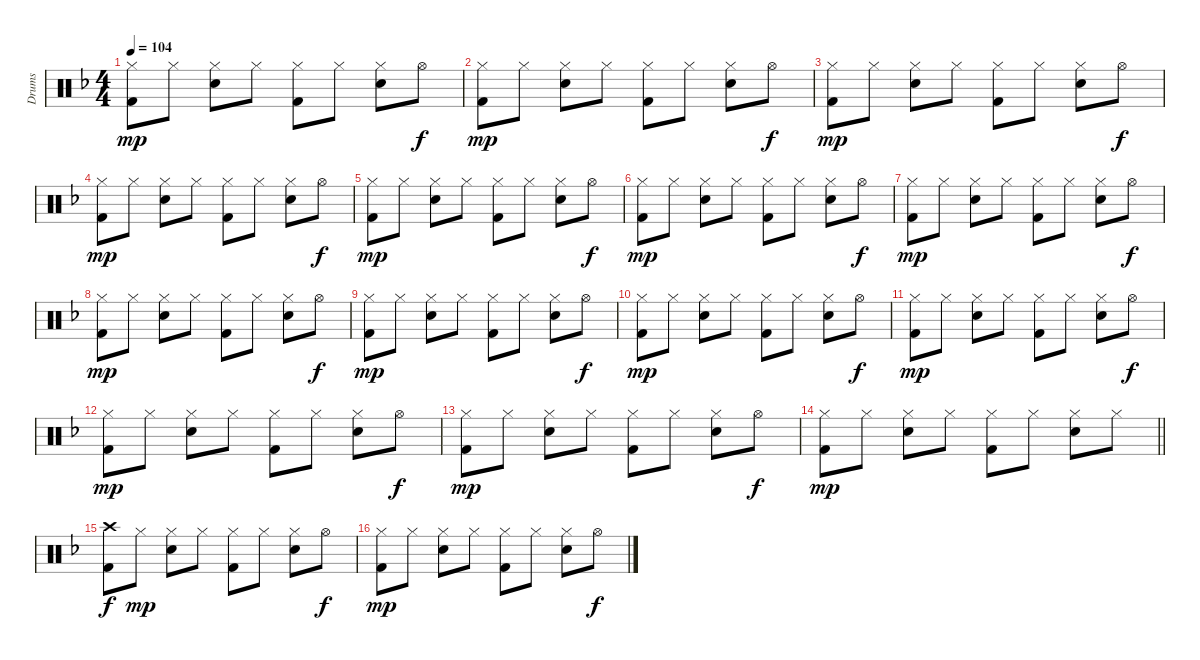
\track ("Drums" "Drums") {instrument percussion}
\staff {score}
\articulation defaults
\ts (4 4)
\tempo 104
\clef neutral
\ks dminor
("Hi-Hat (closed)" "Kick (hit) 2").8{dy mp} "Hi-Hat (closed)".8 ("Hi-Hat (closed)" "Snare (hit) 2").8 "Hi-Hat (closed)".8 ("Hi-Hat (closed)" "Kick (hit) 2").8 "Hi-Hat (closed)".8 ("Hi-Hat (closed)" "Snare (hit) 2").8 "Hi-Hat (open)".8{dy f} |
("Hi-Hat (closed)" "Kick (hit) 2").8{dy mp} "Hi-Hat (closed)".8 ("Hi-Hat (closed)" "Snare (hit) 2").8 "Hi-Hat (closed)".8 ("Hi-Hat (closed)" "Kick (hit) 2").8 "Hi-Hat (closed)".8 ("Hi-Hat (closed)" "Snare (hit) 2").8 "Hi-Hat (open)".8{dy f} |
("Hi-Hat (closed)" "Kick (hit) 2").8{dy mp} "Hi-Hat (closed)".8 ("Hi-Hat (closed)" "Snare (hit) 2").8 "Hi-Hat (closed)".8 ("Hi-Hat (closed)" "Kick (hit) 2").8 "Hi-Hat (closed)".8 ("Hi-Hat (closed)" "Snare (hit) 2").8 "Hi-Hat (open)".8{dy f} |
("Hi-Hat (closed)" "Kick (hit) 2").8{dy mp} "Hi-Hat (closed)".8 ("Hi-Hat (closed)" "Snare (hit) 2").8 "Hi-Hat (closed)".8 ("Hi-Hat (closed)" "Kick (hit) 2").8 "Hi-Hat (closed)".8 ("Hi-Hat (closed)" "Snare (hit) 2").8 "Hi-Hat (open)".8{dy f} |
("Hi-Hat (closed)" "Kick (hit) 2").8{dy mp} "Hi-Hat (closed)".8 ("Hi-Hat (closed)" "Snare (hit) 2").8 "Hi-Hat (closed)".8 ("Hi-Hat (closed)" "Kick (hit) 2").8 "Hi-Hat (closed)".8 ("Hi-Hat (closed)" "Snare (hit) 2").8 "Hi-Hat (open)".8{dy f} |
("Hi-Hat (closed)" "Kick (hit) 2").8{dy mp} "Hi-Hat (closed)".8 ("Hi-Hat (closed)" "Snare (hit) 2").8 "Hi-Hat (closed)".8 ("Hi-Hat (closed)" "Kick (hit) 2").8 "Hi-Hat (closed)".8 ("Hi-Hat (closed)" "Snare (hit) 2").8 "Hi-Hat (open)".8{dy f} |
("Hi-Hat (closed)" "Kick (hit) 2").8{dy mp} "Hi-Hat (closed)".8 ("Hi-Hat (closed)" "Snare (hit) 2").8 "Hi-Hat (closed)".8 ("Hi-Hat (closed)" "Kick (hit) 2").8 "Hi-Hat (closed)".8 ("Hi-Hat (closed)" "Snare (hit) 2").8 "Hi-Hat (open)".8{dy f} |
("Hi-Hat (closed)" "Kick (hit) 2").8{dy mp} "Hi-Hat (closed)".8 ("Hi-Hat (closed)" "Snare (hit) 2").8 "Hi-Hat (closed)".8 ("Hi-Hat (closed)" "Kick (hit) 2").8 "Hi-Hat (closed)".8 ("Hi-Hat (closed)" "Snare (hit) 2").8 "Hi-Hat (open)".8{dy f} |
("Hi-Hat (closed)" "Kick (hit) 2").8{dy mp} "Hi-Hat (closed)".8 ("Hi-Hat (closed)" "Snare (hit) 2").8 "Hi-Hat (closed)".8 ("Hi-Hat (closed)" "Kick (hit) 2").8 "Hi-Hat (closed)".8 ("Hi-Hat (closed)" "Snare (hit) 2").8 "Hi-Hat (open)".8{dy f} |
("Hi-Hat (closed)" "Kick (hit) 2").8{dy mp} "Hi-Hat (closed)".8 ("Hi-Hat (closed)" "Snare (hit) 2").8 "Hi-Hat (closed)".8 ("Hi-Hat (closed)" "Kick (hit) 2").8 "Hi-Hat (closed)".8 ("Hi-Hat (closed)" "Snare (hit) 2").8 "Hi-Hat (open)".8{dy f} |
("Hi-Hat (closed)" "Kick (hit) 2").8{dy mp} "Hi-Hat (closed)".8 ("Hi-Hat (closed)" "Snare (hit) 2").8 "Hi-Hat (closed)".8 ("Hi-Hat (closed)" "Kick (hit) 2").8 "Hi-Hat (closed)".8 ("Hi-Hat (closed)" "Snare (hit) 2").8 "Hi-Hat (open)".8{dy f} |
("Hi-Hat (closed)" "Kick (hit) 2").8{dy mp} "Hi-Hat (closed)".8 ("Hi-Hat (closed)" "Snare (hit) 2").8 "Hi-Hat (closed)".8 ("Hi-Hat (closed)" "Kick (hit) 2").8 "Hi-Hat (closed)".8 ("Hi-Hat (closed)" "Snare (hit) 2").8 "Hi-Hat (open)".8{dy f} |
("Hi-Hat (closed)" "Kick (hit) 2").8{dy mp} "Hi-Hat (closed)".8 ("Hi-Hat (closed)" "Snare (hit) 2").8 "Hi-Hat (closed)".8 ("Hi-Hat (closed)" "Kick (hit) 2").8 "Hi-Hat (closed)".8 ("Hi-Hat (closed)" "Snare (hit) 2").8 "Hi-Hat (open)".8{dy f} |
\barLineRight lightlight
("Hi-Hat (closed)" "Kick (hit) 2").8{dy mp} "Hi-Hat (closed)".8 ("Hi-Hat (closed)" "Snare (hit) 2").8 "Hi-Hat (closed)".8 ("Hi-Hat (closed)" "Kick (hit) 2").8 "Hi-Hat (closed)".8 ("Hi-Hat (closed)" "Snare (hit) 2").8 "Hi-Hat (closed)".8 |
("Crash high (hit)" "Kick (hit) 2").8{dy f} "Hi-Hat (closed)".8{dy mp} ("Hi-Hat (closed)" "Snare (hit) 2").8 "Hi-Hat (closed)".8 ("Hi-Hat (closed)" "Kick (hit) 2").8 "Hi-Hat (closed)".8 ("Hi-Hat (closed)" "Snare (hit) 2").8 "Hi-Hat (open)".8{dy f} |
("Hi-Hat (closed)" "Kick (hit) 2").8{dy mp} "Hi-Hat (closed)".8 ("Hi-Hat (closed)" "Snare (hit) 2").8 "Hi-Hat (closed)".8 ("Hi-Hat (closed)" "Kick (hit) 2").8 "Hi-Hat (closed)".8 ("Hi-Hat (closed)" "Snare (hit) 2").8 "Hi-Hat (open)".8{dy f}
